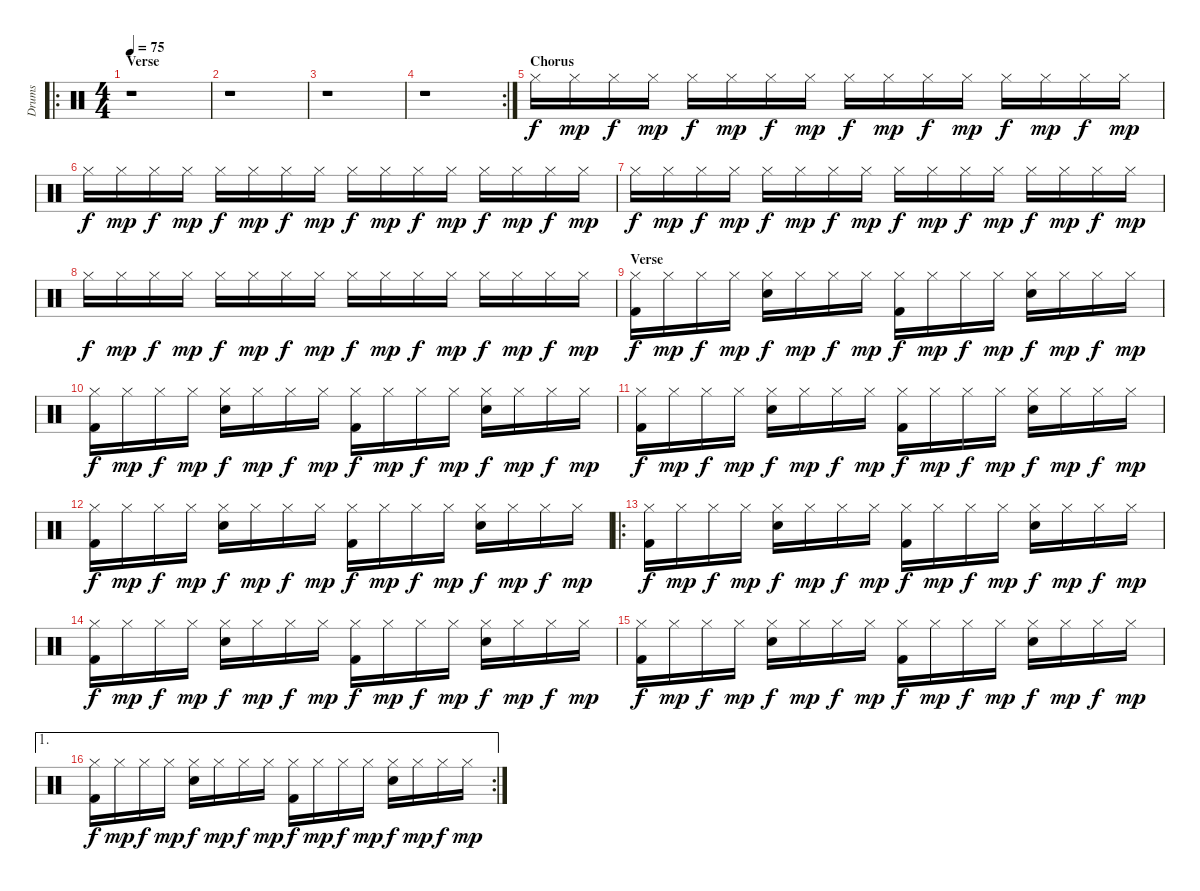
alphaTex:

\track ("Drums" "Drums") {instrument percussion}
\staff {score}
\articulation defaults
\ro
\ts (4 4)
\section ("" "Verse")
\tempo 75
\clef neutral
\ks c
r.1{dy f} |
r.1 |
r.1 |
\rc 2
r.1 |
\section ("" "Chorus")
"Hi-Hat (closed)".16 "Hi-Hat (closed)".16{dy mp} "Hi-Hat (closed)".16{dy f} "Hi-Hat (closed)".16{dy mp} "Hi-Hat (closed)".16{dy f} "Hi-Hat (closed)".16{dy mp} "Hi-Hat (closed)".16{dy f} "Hi-Hat (closed)".16{dy mp} "Hi-Hat (closed)".16{dy f} "Hi-Hat (closed)".16{dy mp} "Hi-Hat (closed)".16{dy f} "Hi-Hat (closed)".16{dy mp} "Hi-Hat (closed)".16{dy f} "Hi-Hat (closed)".16{dy mp} "Hi-Hat (closed)".16{dy f} "Hi-Hat (closed)".16{dy mp} |
"Hi-Hat (closed)".16{dy f} "Hi-Hat (closed)".16{dy mp} "Hi-Hat (closed)".16{dy f} "Hi-Hat (closed)".16{dy mp} "Hi-Hat (closed)".16{dy f} "Hi-Hat (closed)".16{dy mp} "Hi-Hat (closed)".16{dy f} "Hi-Hat (closed)".16{dy mp} "Hi-Hat (closed)".16{dy f} "Hi-Hat (closed)".16{dy mp} "Hi-Hat (closed)".16{dy f} "Hi-Hat (closed)".16{dy mp} "Hi-Hat (closed)".16{dy f} "Hi-Hat (closed)".16{dy mp} "Hi-Hat (closed)".16{dy f} "Hi-Hat (closed)".16{dy mp} |
"Hi-Hat (closed)".16{dy f} "Hi-Hat (closed)".16{dy mp} "Hi-Hat (closed)".16{dy f} "Hi-Hat (closed)".16{dy mp} "Hi-Hat (closed)".16{dy f} "Hi-Hat (closed)".16{dy mp} "Hi-Hat (closed)".16{dy f} "Hi-Hat (closed)".16{dy mp} "Hi-Hat (closed)".16{dy f} "Hi-Hat (closed)".16{dy mp} "Hi-Hat (closed)".16{dy f} "Hi-Hat (closed)".16{dy mp} "Hi-Hat (closed)".16{dy f} "Hi-Hat (closed)".16{dy mp} "Hi-Hat (closed)".16{dy f} "Hi-Hat (closed)".16{dy mp} |
"Hi-Hat (closed)".16{dy f} "Hi-Hat (closed)".16{dy mp} "Hi-Hat (closed)".16{dy f} "Hi-Hat (closed)".16{dy mp} "Hi-Hat (closed)".16{dy f} "Hi-Hat (closed)".16{dy mp} "Hi-Hat (closed)".16{dy f} "Hi-Hat (closed)".16{dy mp} "Hi-Hat (closed)".16{dy f} "Hi-Hat (closed)".16{dy mp} "Hi-Hat (closed)".16{dy f} "Hi-Hat (closed)".16{dy mp} "Hi-Hat (closed)".16{dy f} "Hi-Hat (closed)".16{dy mp} "Hi-Hat (closed)".16{dy f} "Hi-Hat (closed)".16{dy mp} |
\section ("" "Verse")
("Hi-Hat (closed)" "Kick (hit) 2").16{dy f} "Hi-Hat (closed)".16{dy mp} "Hi-Hat (closed)".16{dy f} "Hi-Hat (closed)".16{dy mp} ("Hi-Hat (closed)" "Snare (hit) 2").16{dy f} "Hi-Hat (closed)".16{dy mp} "Hi-Hat (closed)".16{dy f} "Hi-Hat (closed)".16{dy mp} ("Hi-Hat (closed)" "Kick (hit) 2").16{dy f} "Hi-Hat (closed)".16{dy mp} "Hi-Hat (closed)".16{dy f} "Hi-Hat (closed)".16{dy mp} ("Hi-Hat (closed)" "Snare (hit) 2").16{dy f} "Hi-Hat (closed)".16{dy mp} "Hi-Hat (closed)".16{dy f} "Hi-Hat (closed)".16{dy mp} |
("Hi-Hat (closed)" "Kick (hit) 2").16{dy f} "Hi-Hat (closed)".16{dy mp} "Hi-Hat (closed)".16{dy f} "Hi-Hat (closed)".16{dy mp} ("Hi-Hat (closed)" "Snare (hit) 2").16{dy f} "Hi-Hat (closed)".16{dy mp} "Hi-Hat (closed)".16{dy f} "Hi-Hat (closed)".16{dy mp} ("Hi-Hat (closed)" "Kick (hit) 2").16{dy f} "Hi-Hat (closed)".16{dy mp} "Hi-Hat (closed)".16{dy f} "Hi-Hat (closed)".16{dy mp} ("Hi-Hat (closed)" "Snare (hit) 2").16{dy f} "Hi-Hat (closed)".16{dy mp} "Hi-Hat (closed)".16{dy f} "Hi-Hat (closed)".16{dy mp} |
("Hi-Hat (closed)" "Kick (hit) 2").16{dy f} "Hi-Hat (closed)".16{dy mp} "Hi-Hat (closed)".16{dy f} "Hi-Hat (closed)".16{dy mp} ("Hi-Hat (closed)" "Snare (hit) 2").16{dy f} "Hi-Hat (closed)".16{dy mp} "Hi-Hat (closed)".16{dy f} "Hi-Hat (closed)".16{dy mp} ("Hi-Hat (closed)" "Kick (hit) 2").16{dy f} "Hi-Hat (closed)".16{dy mp} "Hi-Hat (closed)".16{dy f} "Hi-Hat (closed)".16{dy mp} ("Hi-Hat (closed)" "Snare (hit) 2").16{dy f} "Hi-Hat (closed)".16{dy mp} "Hi-Hat (closed)".16{dy f} "Hi-Hat (closed)".16{dy mp} |
("Hi-Hat (closed)" "Kick (hit) 2").16{dy f} "Hi-Hat (closed)".16{dy mp} "Hi-Hat (closed)".16{dy f} "Hi-Hat (closed)".16{dy mp} ("Hi-Hat (closed)" "Snare (hit) 2").16{dy f} "Hi-Hat (closed)".16{dy mp} "Hi-Hat (closed)".16{dy f} "Hi-Hat (closed)".16{dy mp} ("Hi-Hat (closed)" "Kick (hit) 2").16{dy f} "Hi-Hat (closed)".16{dy mp} "Hi-Hat (closed)".16{dy f} "Hi-Hat (closed)".16{dy mp} ("Hi-Hat (closed)" "Snare (hit) 2").16{dy f} "Hi-Hat (closed)".16{dy mp} "Hi-Hat (closed)".16{dy f} "Hi-Hat (closed)".16{dy mp} |
\ro
("Hi-Hat (closed)" "Kick (hit) 2").16{dy f} "Hi-Hat (closed)".16{dy mp} "Hi-Hat (closed)".16{dy f} "Hi-Hat (closed)".16{dy mp} ("Hi-Hat (closed)" "Snare (hit) 2").16{dy f} "Hi-Hat (closed)".16{dy mp} "Hi-Hat (closed)".16{dy f} "Hi-Hat (closed)".16{dy mp} ("Hi-Hat (closed)" "Kick (hit) 2").16{dy f} "Hi-Hat (closed)".16{dy mp} "Hi-Hat (closed)".16{dy f} "Hi-Hat (closed)".16{dy mp} ("Hi-Hat (closed)" "Snare (hit) 2").16{dy f} "Hi-Hat (closed)".16{dy mp} "Hi-Hat (closed)".16{dy f} "Hi-Hat (closed)".16{dy mp} |
("Hi-Hat (closed)" "Kick (hit) 2").16{dy f} "Hi-Hat (closed)".16{dy mp} "Hi-Hat (closed)".16{dy f} "Hi-Hat (closed)".16{dy mp} ("Hi-Hat (closed)" "Snare (hit) 2").16{dy f} "Hi-Hat (closed)".16{dy mp} "Hi-Hat (closed)".16{dy f} "Hi-Hat (closed)".16{dy mp} ("Hi-Hat (closed)" "Kick (hit) 2").16{dy f} "Hi-Hat (closed)".16{dy mp} "Hi-Hat (closed)".16{dy f} "Hi-Hat (closed)".16{dy mp} ("Hi-Hat (closed)" "Snare (hit) 2").16{dy f} "Hi-Hat (closed)".16{dy mp} "Hi-Hat (closed)".16{dy f} "Hi-Hat (closed)".16{dy mp} |
("Hi-Hat (closed)" "Kick (hit) 2").16{dy f} "Hi-Hat (closed)".16{dy mp} "Hi-Hat (closed)".16{dy f} "Hi-Hat (closed)".16{dy mp} ("Hi-Hat (closed)" "Snare (hit) 2").16{dy f} "Hi-Hat (closed)".16{dy mp} "Hi-Hat (closed)".16{dy f} "Hi-Hat (closed)".16{dy mp} ("Hi-Hat (closed)" "Kick (hit) 2").16{dy f} "Hi-Hat (closed)".16{dy mp} "Hi-Hat (closed)".16{dy f} "Hi-Hat (closed)".16{dy mp} ("Hi-Hat (closed)" "Snare (hit) 2").16{dy f} "Hi-Hat (closed)".16{dy mp} "Hi-Hat (closed)".16{dy f} "Hi-Hat (closed)".16{dy mp} |
\ae 1
\rc 2
("Hi-Hat (closed)" "Kick (hit) 2").16{dy f} "Hi-Hat (closed)".16{dy mp} "Hi-Hat (closed)".16{dy f} "Hi-Hat (closed)".16{dy mp} ("Hi-Hat (closed)" "Snare (hit) 2").16{dy f} "Hi-Hat (closed)".16{dy mp} "Hi-Hat (closed)".16{dy f} "Hi-Hat (closed)".16{dy mp} ("Hi-Hat (closed)" "Kick (hit) 2").16{dy f} "Hi-Hat (closed)".16{dy mp} "Hi-Hat (closed)".16{dy f} "Hi-Hat (closed)".16{dy mp} ("Hi-Hat (closed)" "Snare (hit) 2").16{dy f} "Hi-Hat (closed)".16{dy mp} "Hi-Hat (closed)".16{dy f} "Hi-Hat (closed)".16{dy mp}
